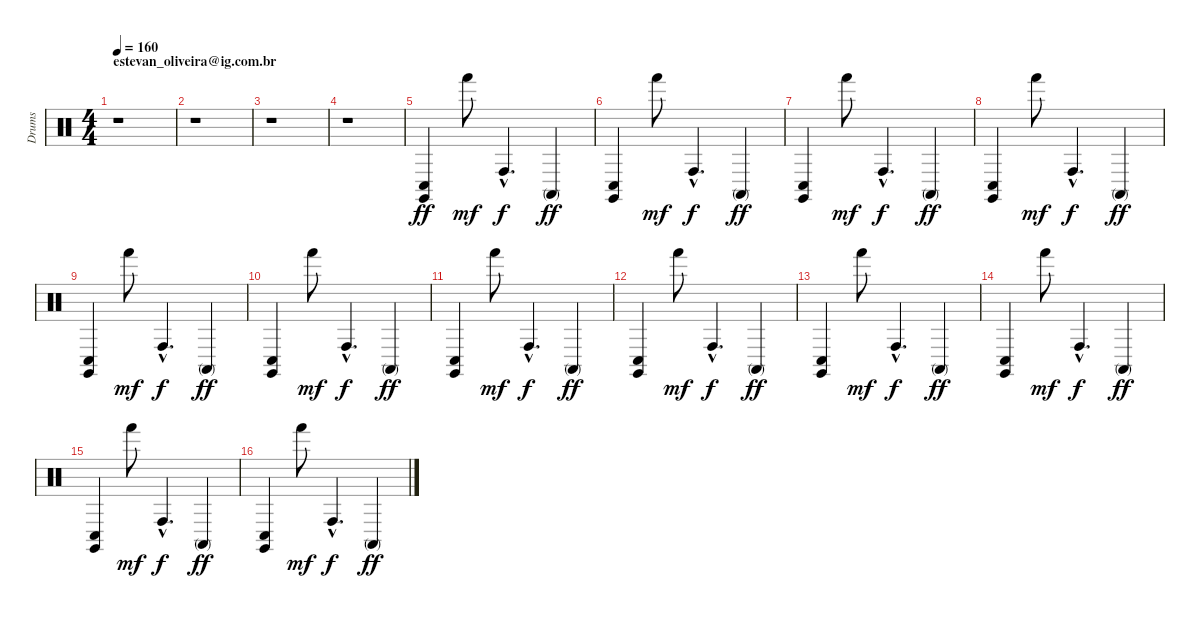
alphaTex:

\track ("Drums" "Drums") {instrument percussion}
\staff {score}
\articulation defaults
\ts (4 4)
\section ("" "estevan_oliveira@ig.com.br")
\tempo 160
\clef neutral
\ks c
r.1{dy ff} |
r.1 |
r.1 |
r.1 |
("Claves (hit)" "Conga low (hit)").4 "Hand (hit)".8{dy mf} "Conga high (hit)"{hac}.4{d dy f} "Conga high (mute)".4{dy ff} |
("Claves (hit)" "Conga low (hit)").4 "Hand (hit)".8{dy mf} "Conga high (hit)"{hac}.4{d dy f} "Conga high (mute)".4{dy ff} |
("Claves (hit)" "Conga low (hit)").4 "Hand (hit)".8{dy mf} "Conga high (hit)"{hac}.4{d dy f} "Conga high (mute)".4{dy ff} |
("Claves (hit)" "Conga low (hit)").4 "Hand (hit)".8{dy mf} "Conga high (hit)"{hac}.4{d dy f} "Conga high (mute)".4{dy ff} |
("Claves (hit)" "Conga low (hit)").4 "Hand (hit)".8{dy mf} "Conga high (hit)"{hac}.4{d dy f} "Conga high (mute)".4{dy ff} |
("Claves (hit)" "Conga low (hit)").4 "Hand (hit)".8{dy mf} "Conga high (hit)"{hac}.4{d dy f} "Conga high (mute)".4{dy ff} |
("Claves (hit)" "Conga low (hit)").4 "Hand (hit)".8{dy mf} "Conga high (hit)"{hac}.4{d dy f} "Conga high (mute)".4{dy ff} |
("Claves (hit)" "Conga low (hit)").4 "Hand (hit)".8{dy mf} "Conga high (hit)"{hac}.4{d dy f} "Conga high (mute)".4{dy ff} |
("Claves (hit)" "Conga low (hit)").4 "Hand (hit)".8{dy mf} "Conga high (hit)"{hac}.4{d dy f} "Conga high (mute)".4{dy ff} |
("Claves (hit)" "Conga low (hit)").4 "Hand (hit)".8{dy mf} "Conga high (hit)"{hac}.4{d dy f} "Conga high (mute)".4{dy ff} |
("Claves (hit)" "Conga low (hit)").4 "Hand (hit)".8{dy mf} "Conga high (hit)"{hac}.4{d dy f} "Conga high (mute)".4{dy ff} |
("Claves (hit)" "Conga low (hit)").4 "Hand (hit)".8{dy mf} "Conga high (hit)"{hac}.4{d dy f} "Conga high (mute)".4{dy ff}
